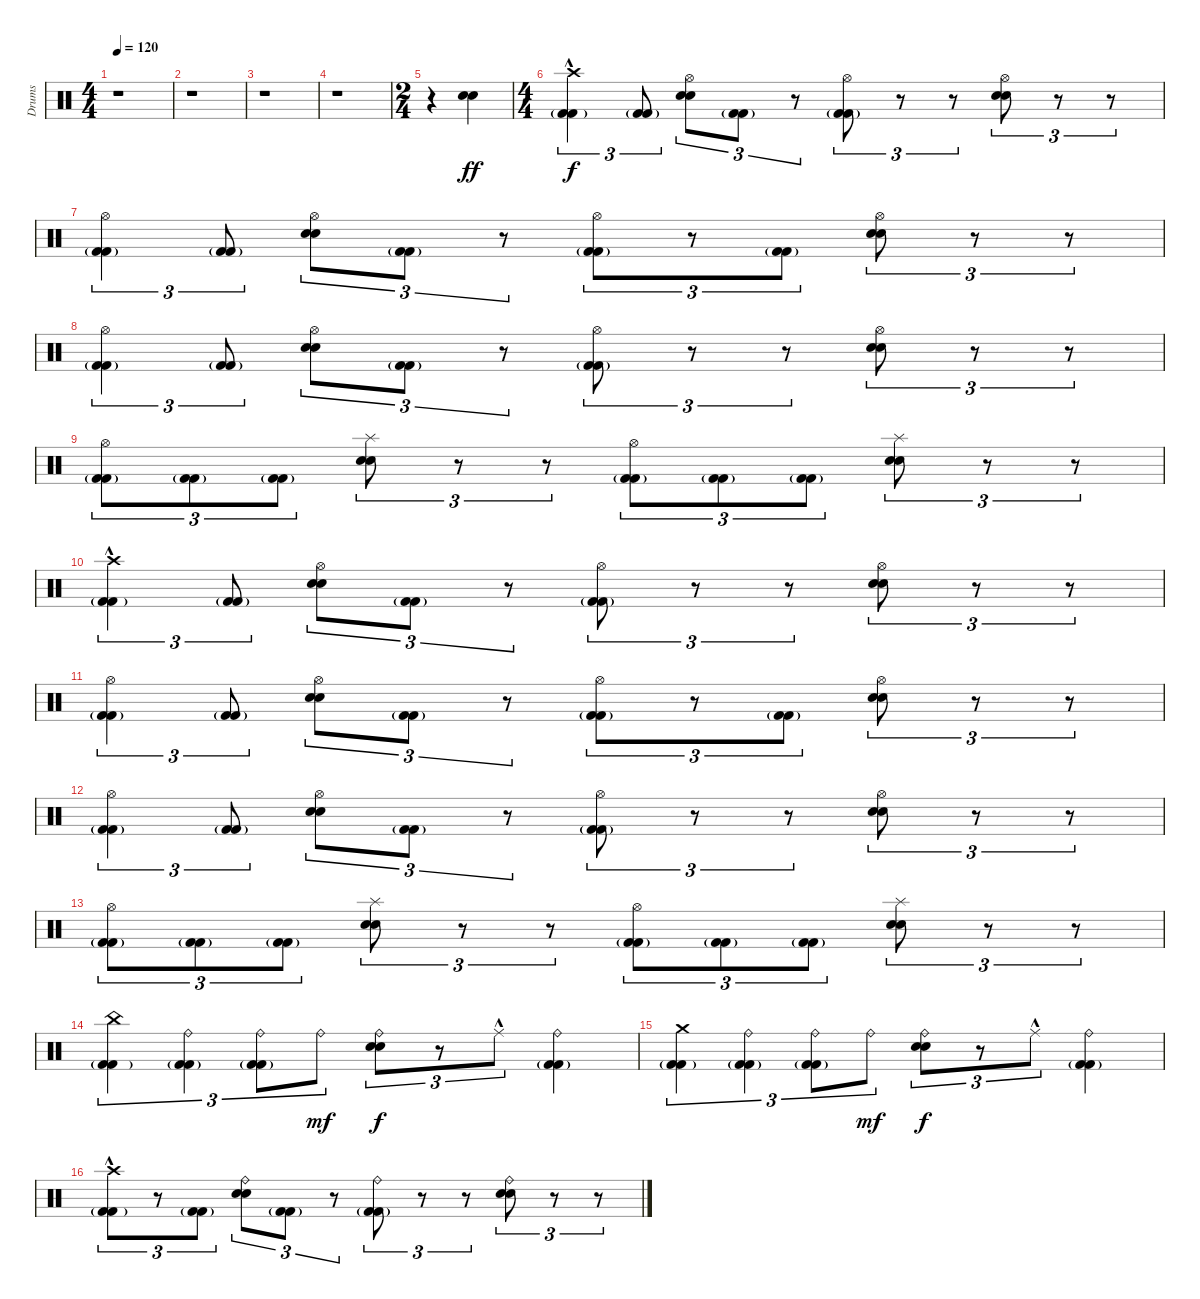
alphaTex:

\track ("Drums" "Drums") {instrument percussion}
\staff {score}
\articulation defaults
\ts (4 4)
\tempo 120
\clef neutral
\ks c
r.1{dy f} |
r.1 |
r.1 |
r.1 |
\ts (2 4)
r.4 ("Snare (hit)" "Electric Snare (hit)").4{bu 120 dy ff} |
\ts (4 4)
("Crash high (hit)"{hac} "Kick (hit) 2"{g} "Kick (hit) 2").4{tu (3 2) dy f} ("Kick (hit) 2"{g} "Kick (hit) 2").8{tu (3 2)} ("Hi-Hat (open)" "Snare (hit)" "Electric Snare (hit)").8{tu (3 2)} ("Kick (hit) 2"{g} "Kick (hit) 2").8{tu (3 2)} r.8{tu (3 2)} ("Hi-Hat (open)" "Kick (hit) 2"{g} "Kick (hit) 2").8{tu (3 2)} r.8{tu (3 2)} r.8{tu (3 2)} ("Hi-Hat (open)" "Snare (hit)" "Electric Snare (hit)").8{tu (3 2)} r.8{tu (3 2)} r.8{tu (3 2)} |
("Hi-Hat (open)" "Kick (hit) 2"{g} "Kick (hit) 2").4{tu (3 2)} ("Kick (hit) 2"{g} "Kick (hit) 2").8{tu (3 2)} ("Hi-Hat (open)" "Snare (hit)" "Electric Snare (hit)").8{tu (3 2)} ("Kick (hit) 2"{g} "Kick (hit) 2").8{tu (3 2)} r.8{tu (3 2)} ("Hi-Hat (open)" "Kick (hit) 2"{g} "Kick (hit) 2").8{tu (3 2)} r.8{tu (3 2)} ("Kick (hit) 2"{g} "Kick (hit) 2").8{tu (3 2)} ("Hi-Hat (open)" "Snare (hit)" "Electric Snare (hit)").8{tu (3 2)} r.8{tu (3 2)} r.8{tu (3 2)} |
("Hi-Hat (open)" "Kick (hit) 2"{g} "Kick (hit) 2").4{tu (3 2)} ("Kick (hit) 2"{g} "Kick (hit) 2").8{tu (3 2)} ("Hi-Hat (open)" "Snare (hit)" "Electric Snare (hit)").8{tu (3 2)} ("Kick (hit) 2"{g} "Kick (hit) 2").8{tu (3 2)} r.8{tu (3 2)} ("Hi-Hat (open)" "Kick (hit) 2"{g} "Kick (hit) 2").8{tu (3 2)} r.8{tu (3 2)} r.8{tu (3 2)} ("Hi-Hat (open)" "Snare (hit)" "Electric Snare (hit)").8{tu (3 2)} r.8{tu (3 2)} r.8{tu (3 2)} |
("Hi-Hat (open)" "Kick (hit) 2"{g} "Kick (hit) 2").8{tu (3 2)} ("Kick (hit) 2"{g} "Kick (hit) 2").8{tu (3 2)} ("Kick (hit) 2"{g} "Kick (hit) 2").8{tu (3 2)} ("Splash (hit)" "Snare (hit)" "Electric Snare (hit)").8{tu (3 2)} r.8{tu (3 2)} r.8{tu (3 2)} ("Hi-Hat (open)" "Kick (hit) 2"{g} "Kick (hit) 2").8{tu (3 2)} ("Kick (hit) 2"{g} "Kick (hit) 2").8{tu (3 2)} ("Kick (hit) 2"{g} "Kick (hit) 2").8{tu (3 2)} ("Splash (hit)" "Snare (hit)" "Electric Snare (hit)").8{tu (3 2)} r.8{tu (3 2)} r.8{tu (3 2)} |
("Crash high (hit)"{hac} "Kick (hit) 2"{g} "Kick (hit) 2").4{tu (3 2)} ("Kick (hit) 2"{g} "Kick (hit) 2").8{tu (3 2)} ("Hi-Hat (open)" "Snare (hit)" "Electric Snare (hit)").8{tu (3 2)} ("Kick (hit) 2"{g} "Kick (hit) 2").8{tu (3 2)} r.8{tu (3 2)} ("Hi-Hat (open)" "Kick (hit) 2"{g} "Kick (hit) 2").8{tu (3 2)} r.8{tu (3 2)} r.8{tu (3 2)} ("Hi-Hat (open)" "Snare (hit)" "Electric Snare (hit)").8{tu (3 2)} r.8{tu (3 2)} r.8{tu (3 2)} |
("Hi-Hat (open)" "Kick (hit) 2"{g} "Kick (hit) 2").4{tu (3 2)} ("Kick (hit) 2"{g} "Kick (hit) 2").8{tu (3 2)} ("Hi-Hat (open)" "Snare (hit)" "Electric Snare (hit)").8{tu (3 2)} ("Kick (hit) 2"{g} "Kick (hit) 2").8{tu (3 2)} r.8{tu (3 2)} ("Hi-Hat (open)" "Kick (hit) 2"{g} "Kick (hit) 2").8{tu (3 2)} r.8{tu (3 2)} ("Kick (hit) 2"{g} "Kick (hit) 2").8{tu (3 2)} ("Hi-Hat (open)" "Snare (hit)" "Electric Snare (hit)").8{tu (3 2)} r.8{tu (3 2)} r.8{tu (3 2)} |
("Hi-Hat (open)" "Kick (hit) 2"{g} "Kick (hit) 2").4{tu (3 2)} ("Kick (hit) 2"{g} "Kick (hit) 2").8{tu (3 2)} ("Hi-Hat (open)" "Snare (hit)" "Electric Snare (hit)").8{tu (3 2)} ("Kick (hit) 2"{g} "Kick (hit) 2").8{tu (3 2)} r.8{tu (3 2)} ("Hi-Hat (open)" "Kick (hit) 2"{g} "Kick (hit) 2").8{tu (3 2)} r.8{tu (3 2)} r.8{tu (3 2)} ("Hi-Hat (open)" "Snare (hit)" "Electric Snare (hit)").8{tu (3 2)} r.8{tu (3 2)} r.8{tu (3 2)} |
("Hi-Hat (open)" "Kick (hit) 2"{g} "Kick (hit) 2").8{tu (3 2)} ("Kick (hit) 2"{g} "Kick (hit) 2").8{tu (3 2)} ("Kick (hit) 2"{g} "Kick (hit) 2").8{tu (3 2)} ("Splash (hit)" "Snare (hit)" "Electric Snare (hit)").8{tu (3 2)} r.8{tu (3 2)} r.8{tu (3 2)} ("Hi-Hat (open)" "Kick (hit) 2"{g} "Kick (hit) 2").8{tu (3 2)} ("Kick (hit) 2"{g} "Kick (hit) 2").8{tu (3 2)} ("Kick (hit) 2"{g} "Kick (hit) 2").8{tu (3 2)} ("Splash (hit)" "Snare (hit)" "Electric Snare (hit)").8{tu (3 2)} r.8{tu (3 2)} r.8{tu (3 2)} |
("China (hit)" "Kick (hit) 2"{g} "Kick (hit) 2").4{tu (3 2)} ("Ride (bell)" "Kick (hit) 2"{g} "Kick (hit) 2").4{tu (3 2)} ("Ride (bell)" "Kick (hit) 2"{g} "Kick (hit) 2").8{tu (3 2)} "Ride (bell)".8{tu (3 2) dy mf} ("Ride (bell)" "Snare (hit)" "Electric Snare (hit)").8{tu (3 2) dy f} r.8{tu (3 2)} "Ride (middle)"{hac}.8{tu (3 2)} ("Ride (bell)" "Kick (hit) 2"{g} "Kick (hit) 2").4 |
("Crash medium (hit)" "Kick (hit) 2"{g} "Kick (hit) 2").4{tu (3 2)} ("Ride (bell)" "Kick (hit) 2"{g} "Kick (hit) 2").4{tu (3 2)} ("Ride (bell)" "Kick (hit) 2"{g} "Kick (hit) 2").8{tu (3 2)} "Ride (bell)".8{tu (3 2) dy mf} ("Ride (bell)" "Snare (hit)" "Electric Snare (hit)").8{tu (3 2) dy f} r.8{tu (3 2)} "Ride (middle)"{hac}.8{tu (3 2)} ("Ride (bell)" "Kick (hit) 2"{g} "Kick (hit) 2").4 |
("Crash high (hit)"{hac} "Kick (hit) 2"{g} "Kick (hit) 2").8{tu (3 2)} r.8{tu (3 2)} ("Kick (hit) 2"{g} "Kick (hit) 2").8{tu (3 2)} ("Ride (bell)" "Snare (hit)" "Electric Snare (hit)").8{tu (3 2)} ("Kick (hit) 2"{g} "Kick (hit) 2").8{tu (3 2)} r.8{tu (3 2)} ("Ride (bell)" "Kick (hit) 2"{g} "Kick (hit) 2").8{tu (3 2)} r.8{tu (3 2)} r.8{tu (3 2)} ("Ride (bell)" "Snare (hit)" "Electric Snare (hit)").8{tu (3 2)} r.8{tu (3 2)} r.8{tu (3 2)}
